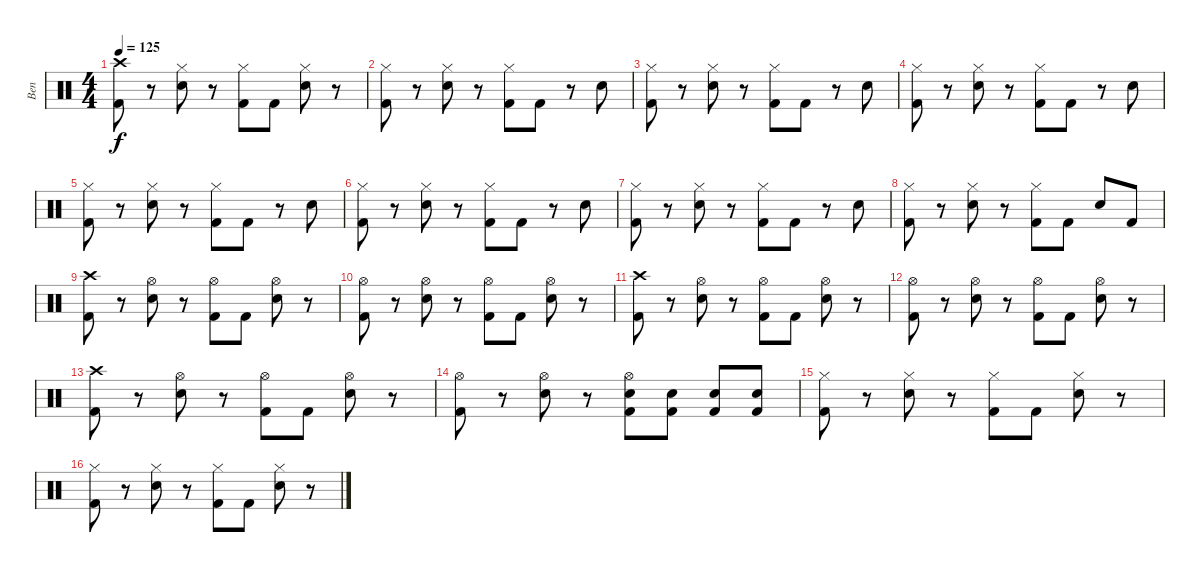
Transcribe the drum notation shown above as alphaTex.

\track ("Ben" "Ben") {instrument percussion}
\staff {score}
\articulation defaults
\ts (4 4)
\tempo 125
\clef neutral
\ks c
("Crash high (hit)" "Kick (hit) 2").8{dy f} r.8 ("Hi-Hat (closed)" "Snare (hit) 2").8 r.8 ("Hi-Hat (closed)" "Kick (hit) 2").8 "Kick (hit) 2".8 ("Hi-Hat (closed)" "Snare (hit) 2").8 r.8 |
("Kick (hit) 2" "Hi-Hat (closed)").8 r.8 ("Snare (hit) 2" "Hi-Hat (closed)").8 r.8 ("Kick (hit) 2" "Hi-Hat (closed)").8 "Kick (hit) 2".8 r.8 "Snare (hit) 2".8 |
("Kick (hit) 2" "Hi-Hat (closed)").8 r.8 ("Snare (hit) 2" "Hi-Hat (closed)").8 r.8 ("Kick (hit) 2" "Hi-Hat (closed)").8 "Kick (hit) 2".8 r.8 "Snare (hit) 2".8 |
("Kick (hit) 2" "Hi-Hat (closed)").8 r.8 ("Snare (hit) 2" "Hi-Hat (closed)").8 r.8 ("Kick (hit) 2" "Hi-Hat (closed)").8 "Kick (hit) 2".8 r.8 "Snare (hit) 2".8 |
("Kick (hit) 2" "Hi-Hat (closed)").8 r.8 ("Snare (hit) 2" "Hi-Hat (closed)").8 r.8 ("Kick (hit) 2" "Hi-Hat (closed)").8 "Kick (hit) 2".8 r.8 "Snare (hit) 2".8 |
("Kick (hit) 2" "Hi-Hat (closed)").8 r.8 ("Snare (hit) 2" "Hi-Hat (closed)").8 r.8 ("Kick (hit) 2" "Hi-Hat (closed)").8 "Kick (hit) 2".8 r.8 "Snare (hit) 2".8 |
("Kick (hit) 2" "Hi-Hat (closed)").8 r.8 ("Snare (hit) 2" "Hi-Hat (closed)").8 r.8 ("Kick (hit) 2" "Hi-Hat (closed)").8 "Kick (hit) 2".8 r.8 "Snare (hit) 2".8 |
("Kick (hit) 2" "Hi-Hat (closed)").8 r.8 ("Snare (hit) 2" "Hi-Hat (closed)").8 r.8 ("Kick (hit) 2" "Hi-Hat (closed)").8 "Kick (hit) 2".8 "Snare (hit) 2".8 "Kick (hit) 2".8 |
("Crash high (hit)" "Kick (hit) 2").8 r.8 ("Hi-Hat (open)" "Snare (hit) 2").8 r.8 ("Hi-Hat (open)" "Kick (hit) 2").8 "Kick (hit) 2".8 ("Hi-Hat (open)" "Snare (hit) 2").8 r.8 |
("Hi-Hat (open)" "Kick (hit) 2").8 r.8 ("Hi-Hat (open)" "Snare (hit) 2").8 r.8 ("Hi-Hat (open)" "Kick (hit) 2").8 "Kick (hit) 2".8 ("Hi-Hat (open)" "Snare (hit) 2").8 r.8 |
("Crash high (hit)" "Kick (hit) 2").8 r.8 ("Hi-Hat (open)" "Snare (hit) 2").8 r.8 ("Hi-Hat (open)" "Kick (hit) 2").8 "Kick (hit) 2".8 ("Hi-Hat (open)" "Snare (hit) 2").8 r.8 |
("Hi-Hat (open)" "Kick (hit) 2").8 r.8 ("Hi-Hat (open)" "Snare (hit) 2").8 r.8 ("Hi-Hat (open)" "Kick (hit) 2").8 "Kick (hit) 2".8 ("Hi-Hat (open)" "Snare (hit) 2").8 r.8 |
("Crash high (hit)" "Kick (hit) 2").8 r.8 ("Hi-Hat (open)" "Snare (hit) 2").8 r.8 ("Hi-Hat (open)" "Kick (hit) 2").8 "Kick (hit) 2".8 ("Hi-Hat (open)" "Snare (hit) 2").8 r.8 |
("Hi-Hat (open)" "Kick (hit) 2").8 r.8 ("Hi-Hat (open)" "Snare (hit) 2").8 r.8 ("Hi-Hat (open)" "Snare (hit) 2" "Kick (hit) 2").8 ("Snare (hit) 2" "Kick (hit) 2").8 ("Snare (hit) 2" "Kick (hit) 2").8 ("Snare (hit) 2" "Kick (hit) 2").8 |
("Kick (hit) 2" "Hi-Hat (closed)").8 r.8 ("Snare (hit) 2" "Hi-Hat (closed)").8 r.8 ("Kick (hit) 2" "Hi-Hat (closed)").8 "Kick (hit) 2".8 ("Snare (hit) 2" "Hi-Hat (closed)").8 r.8 |
("Kick (hit) 2" "Hi-Hat (closed)").8 r.8 ("Snare (hit) 2" "Hi-Hat (closed)").8 r.8 ("Kick (hit) 2" "Hi-Hat (closed)").8 "Kick (hit) 2".8 ("Snare (hit) 2" "Hi-Hat (closed)").8 r.8
